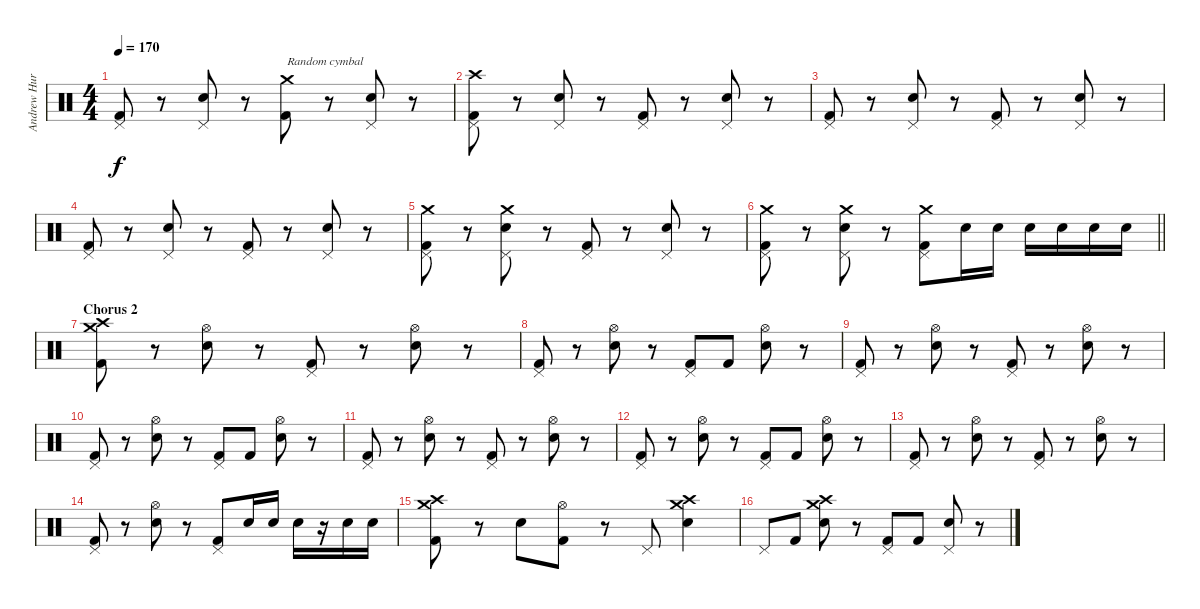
\track ("Andrew Hurley (Drums)" "Andrew Hur") {instrument percussion}
\staff {score}
\articulation defaults
\ts (4 4)
\tempo 170
\clef neutral
\ks c
("Pedal Hi-Hat (hit)" "Kick (hit) 2").8{dy f} r.8 ("Pedal Hi-Hat (hit)" "Electric Snare (hit)").8 r.8 ("Crash medium (hit)" "Kick (hit) 2").8{txt "Random cymbal"} r.8 ("Pedal Hi-Hat (hit)" "Electric Snare (hit)").8 r.8 |
("Crash high (hit)" "Pedal Hi-Hat (hit)" "Kick (hit) 2").8 r.8 ("Pedal Hi-Hat (hit)" "Electric Snare (hit)").8 r.8 ("Pedal Hi-Hat (hit)" "Kick (hit) 2").8 r.8 ("Pedal Hi-Hat (hit)" "Electric Snare (hit)").8 r.8 |
("Pedal Hi-Hat (hit)" "Kick (hit) 2").8 r.8 ("Pedal Hi-Hat (hit)" "Electric Snare (hit)").8 r.8 ("Pedal Hi-Hat (hit)" "Kick (hit) 2").8 r.8 ("Pedal Hi-Hat (hit)" "Electric Snare (hit)").8 r.8 |
("Pedal Hi-Hat (hit)" "Kick (hit) 2").8 r.8 ("Pedal Hi-Hat (hit)" "Electric Snare (hit)").8 r.8 ("Pedal Hi-Hat (hit)" "Kick (hit) 2").8 r.8 ("Pedal Hi-Hat (hit)" "Electric Snare (hit)").8 r.8 |
("Crash medium (hit)" "Pedal Hi-Hat (hit)" "Kick (hit) 2").8 r.8 ("Crash medium (hit)" "Pedal Hi-Hat (hit)" "Electric Snare (hit)").8 r.8 ("Pedal Hi-Hat (hit)" "Kick (hit) 2").8 r.8 ("Pedal Hi-Hat (hit)" "Electric Snare (hit)").8 r.8 |
\barLineRight lightlight
("Crash medium (hit)" "Pedal Hi-Hat (hit)" "Kick (hit) 2").8 r.8 ("Crash medium (hit)" "Pedal Hi-Hat (hit)" "Electric Snare (hit)").8 r.8 ("Crash medium (hit)" "Pedal Hi-Hat (hit)" "Kick (hit) 2").8 "Electric Snare (hit)".16 "Electric Snare (hit)".16 "Electric Snare (hit)".16 "Electric Snare (hit)".16 "Electric Snare (hit)".16 "Electric Snare (hit)".16 |
\section ("" "Chorus 2")
("Crash high (hit)" "Crash medium (hit)" "Kick (hit) 2").8 r.8 ("Hi-Hat (open)" "Electric Snare (hit)").8 r.8 ("Pedal Hi-Hat (hit)" "Kick (hit) 2").8 r.8 ("Hi-Hat (open)" "Electric Snare (hit)").8 r.8 |
("Pedal Hi-Hat (hit)" "Kick (hit) 2").8 r.8 ("Hi-Hat (open)" "Electric Snare (hit)").8 r.8 ("Pedal Hi-Hat (hit)" "Kick (hit) 2").8 "Kick (hit) 2".8 ("Hi-Hat (open)" "Electric Snare (hit)").8 r.8 |
("Pedal Hi-Hat (hit)" "Kick (hit) 2").8 r.8 ("Hi-Hat (open)" "Electric Snare (hit)").8 r.8 ("Pedal Hi-Hat (hit)" "Kick (hit) 2").8 r.8 ("Hi-Hat (open)" "Electric Snare (hit)").8 r.8 |
("Pedal Hi-Hat (hit)" "Kick (hit) 2").8 r.8 ("Hi-Hat (open)" "Electric Snare (hit)").8 r.8 ("Pedal Hi-Hat (hit)" "Kick (hit) 2").8 "Kick (hit) 2".8 ("Hi-Hat (open)" "Electric Snare (hit)").8 r.8 |
("Pedal Hi-Hat (hit)" "Kick (hit) 2").8 r.8 ("Hi-Hat (open)" "Electric Snare (hit)").8 r.8 ("Pedal Hi-Hat (hit)" "Kick (hit) 2").8 r.8 ("Hi-Hat (open)" "Electric Snare (hit)").8 r.8 |
("Pedal Hi-Hat (hit)" "Kick (hit) 2").8 r.8 ("Hi-Hat (open)" "Electric Snare (hit)").8 r.8 ("Pedal Hi-Hat (hit)" "Kick (hit) 2").8 "Kick (hit) 2".8 ("Hi-Hat (open)" "Electric Snare (hit)").8 r.8 |
("Pedal Hi-Hat (hit)" "Kick (hit) 2").8 r.8 ("Hi-Hat (open)" "Electric Snare (hit)").8 r.8 ("Pedal Hi-Hat (hit)" "Kick (hit) 2").8 r.8 ("Hi-Hat (open)" "Electric Snare (hit)").8 r.8 |
("Pedal Hi-Hat (hit)" "Kick (hit) 2").8 r.8 ("Hi-Hat (open)" "Electric Snare (hit)").8 r.8 ("Pedal Hi-Hat (hit)" "Kick (hit) 2").8 "Electric Snare (hit)".16 "Electric Snare (hit)".16 "Electric Snare (hit)".16 r.16 "Electric Snare (hit)".16 "Electric Snare (hit)".16 |
("Crash high (hit)" "Crash medium (hit)" "Kick (hit) 2").8 r.8 "Electric Snare (hit)".8 ("Hi-Hat (open)" "Kick (hit) 2").8 r.8 "Pedal Hi-Hat (hit)".8 ("Crash high (hit)" "Crash medium (hit)" "Electric Snare (hit)").4 |
"Pedal Hi-Hat (hit)".8 "Kick (hit) 2".8 ("Crash medium (hit)" "Crash high (hit)" "Electric Snare (hit)").8 r.8 ("Pedal Hi-Hat (hit)" "Kick (hit) 2").8 "Kick (hit) 2".8 ("Pedal Hi-Hat (hit)" "Electric Snare (hit)").8 r.8
